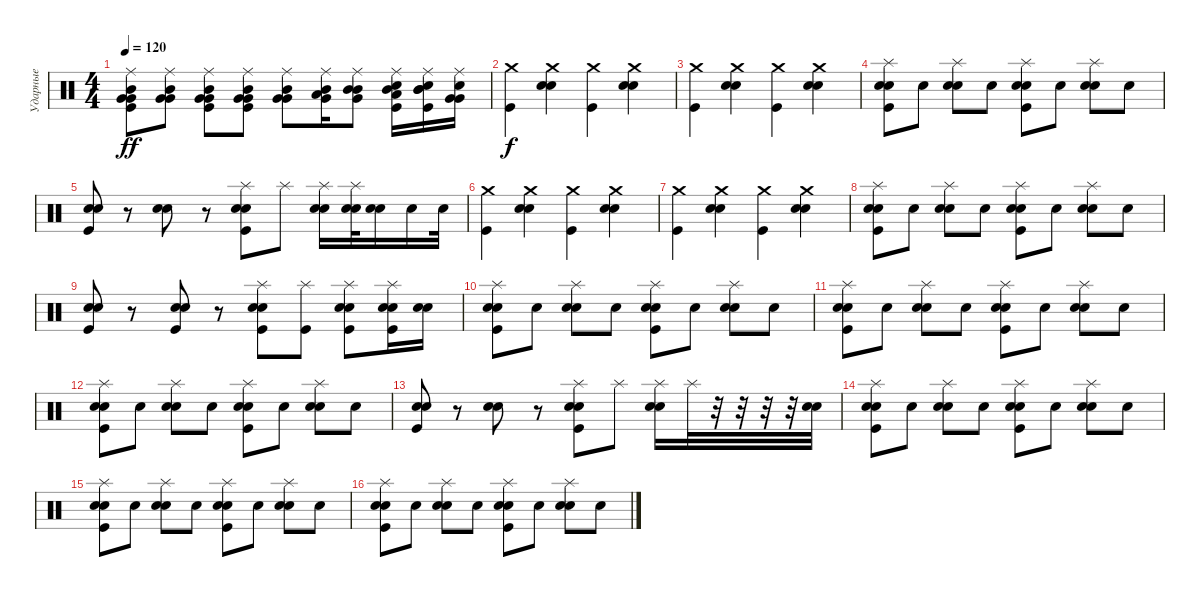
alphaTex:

\track ("Ударные" "Ударные") {instrument percussion}
\staff {score}
\articulation defaults
\ts (4 4)
\tempo 120
\clef neutral
\ks c
("Ride (middle)" "Very Low Tom (hit)" "Very Low Tom (hit)" "Mid Tom (hit)" "Kick (hit)").8{dy ff} ("Ride (middle)" "Very Low Tom (hit)" "Very Low Tom (hit)" "Mid Tom (hit)").8 ("Ride (middle)" "Very Low Tom (hit)" "Very Low Tom (hit)" "Mid Tom (hit)" "Kick (hit)").8 ("Ride (middle)" "Very Low Tom (hit)" "Very Low Tom (hit)" "Mid Tom (hit)" "Kick (hit)").8 ("Ride (middle)" "Very Low Tom (hit)" "Very Low Tom (hit)" "Mid Tom (hit)").8 ("Ride (middle)" "Very Low Tom (hit)" "Low Floor Tom (hit)" "Mid Tom (hit)").16 ("Ride (middle)" "Mid Tom (hit)" "Very Low Tom (hit)" "Mid Tom (hit)").8 ("Ride (middle)" "Electric Snare (hit)" "Mid Tom (hit)" "Low Floor Tom (hit)" "Kick (hit)").16 ("Ride (middle)" "Electric Snare (hit)" "Mid Tom (hit)" "Mid Tom (hit)" "Kick (hit)").16 ("Ride (middle)" "Electric Snare (hit)" "Very Low Tom (hit)" "Very Low Tom (hit)").16 |
("Crash medium (hit)" "Kick (hit)").4{dy f} ("Crash medium (hit)" "Electric Snare (hit)" "Electric Snare (hit)").4 ("Crash medium (hit)" "Kick (hit)").4 ("Crash medium (hit)" "Electric Snare (hit)" "Electric Snare (hit)").4 |
("Crash medium (hit)" "Kick (hit)").4 ("Crash medium (hit)" "Electric Snare (hit)" "Electric Snare (hit)").4 ("Crash medium (hit)" "Kick (hit)").4 ("Crash medium (hit)" "Electric Snare (hit)" "Electric Snare (hit)").4 |
("Splash (hit)" "Electric Snare (hit)" "Electric Snare (hit)" "Kick (hit)").8 "Electric Snare (hit)".8 ("Splash (hit)" "Electric Snare (hit)" "Electric Snare (hit)").8 "Electric Snare (hit)".8 ("Splash (hit)" "Electric Snare (hit)" "Electric Snare (hit)" "Kick (hit)").8 "Electric Snare (hit)".8 ("Splash (hit)" "Electric Snare (hit)" "Electric Snare (hit)").8 "Electric Snare (hit)".8 |
("Electric Snare (hit)" "Electric Snare (hit)" "Kick (hit)").8 r.8 ("Electric Snare (hit)" "Electric Snare (hit)").8 r.8 ("Splash (hit)" "Electric Snare (hit)" "Electric Snare (hit)" "Kick (hit)").8 "Splash (hit)".8 ("Splash (hit)" "Electric Snare (hit)" "Electric Snare (hit)").16 ("Splash (hit)" "Electric Snare (hit)" "Electric Snare (hit)").32 ("Electric Snare (hit)" "Electric Snare (hit)").16 "Electric Snare (hit)".16 "Electric Snare (hit)".32 |
("Crash medium (hit)" "Kick (hit)").4 ("Crash medium (hit)" "Electric Snare (hit)" "Electric Snare (hit)").4 ("Crash medium (hit)" "Kick (hit)").4 ("Crash medium (hit)" "Electric Snare (hit)" "Electric Snare (hit)").4 |
("Crash medium (hit)" "Kick (hit)").4 ("Crash medium (hit)" "Electric Snare (hit)" "Electric Snare (hit)").4 ("Crash medium (hit)" "Kick (hit)").4 ("Crash medium (hit)" "Electric Snare (hit)" "Electric Snare (hit)").4 |
("Splash (hit)" "Electric Snare (hit)" "Electric Snare (hit)" "Kick (hit)").8 "Electric Snare (hit)".8 ("Splash (hit)" "Electric Snare (hit)" "Electric Snare (hit)").8 "Electric Snare (hit)".8 ("Splash (hit)" "Electric Snare (hit)" "Electric Snare (hit)" "Kick (hit)").8 "Electric Snare (hit)".8 ("Splash (hit)" "Electric Snare (hit)" "Electric Snare (hit)").8 "Electric Snare (hit)".8 |
("Electric Snare (hit)" "Electric Snare (hit)" "Kick (hit)").8 r.8 ("Electric Snare (hit)" "Electric Snare (hit)" "Kick (hit)").8 r.8 ("Splash (hit)" "Electric Snare (hit)" "Electric Snare (hit)" "Kick (hit)").8 ("Splash (hit)" "Kick (hit)").8 ("Splash (hit)" "Electric Snare (hit)" "Electric Snare (hit)" "Kick (hit)").8 ("Splash (hit)" "Electric Snare (hit)" "Electric Snare (hit)" "Kick (hit)").16 ("Electric Snare (hit)" "Electric Snare (hit)").16 |
("Splash (hit)" "Electric Snare (hit)" "Electric Snare (hit)" "Kick (hit)").8 "Electric Snare (hit)".8 ("Splash (hit)" "Electric Snare (hit)" "Electric Snare (hit)").8 "Electric Snare (hit)".8 ("Splash (hit)" "Electric Snare (hit)" "Electric Snare (hit)" "Kick (hit)").8 "Electric Snare (hit)".8 ("Splash (hit)" "Electric Snare (hit)" "Electric Snare (hit)").8 "Electric Snare (hit)".8 |
("Splash (hit)" "Electric Snare (hit)" "Electric Snare (hit)" "Kick (hit)").8 "Electric Snare (hit)".8 ("Splash (hit)" "Electric Snare (hit)" "Electric Snare (hit)").8 "Electric Snare (hit)".8 ("Splash (hit)" "Electric Snare (hit)" "Electric Snare (hit)" "Kick (hit)").8 "Electric Snare (hit)".8 ("Splash (hit)" "Electric Snare (hit)" "Electric Snare (hit)").8 "Electric Snare (hit)".8 |
("Splash (hit)" "Electric Snare (hit)" "Electric Snare (hit)" "Kick (hit)").8 "Electric Snare (hit)".8 ("Splash (hit)" "Electric Snare (hit)" "Electric Snare (hit)").8 "Electric Snare (hit)".8 ("Splash (hit)" "Electric Snare (hit)" "Electric Snare (hit)" "Kick (hit)").8 "Electric Snare (hit)".8 ("Splash (hit)" "Electric Snare (hit)" "Electric Snare (hit)").8 "Electric Snare (hit)".8 |
("Electric Snare (hit)" "Electric Snare (hit)" "Kick (hit)").8 r.8 ("Electric Snare (hit)" "Electric Snare (hit)").8 r.8 ("Splash (hit)" "Electric Snare (hit)" "Electric Snare (hit)" "Kick (hit)").8 "Splash (hit)".8 ("Splash (hit)" "Electric Snare (hit)" "Electric Snare (hit)").16 "Splash (hit)".32 r.32 r.32 r.32 r.32 ("Electric Snare (hit)" "Electric Snare (hit)").32 |
("Splash (hit)" "Electric Snare (hit)" "Electric Snare (hit)" "Kick (hit)").8 "Electric Snare (hit)".8 ("Splash (hit)" "Electric Snare (hit)" "Electric Snare (hit)").8 "Electric Snare (hit)".8 ("Splash (hit)" "Electric Snare (hit)" "Electric Snare (hit)" "Kick (hit)").8 "Electric Snare (hit)".8 ("Splash (hit)" "Electric Snare (hit)" "Electric Snare (hit)").8 "Electric Snare (hit)".8 |
("Splash (hit)" "Electric Snare (hit)" "Electric Snare (hit)" "Kick (hit)").8 "Electric Snare (hit)".8 ("Splash (hit)" "Electric Snare (hit)" "Electric Snare (hit)").8 "Electric Snare (hit)".8 ("Splash (hit)" "Electric Snare (hit)" "Electric Snare (hit)" "Kick (hit)").8 "Electric Snare (hit)".8 ("Splash (hit)" "Electric Snare (hit)" "Electric Snare (hit)").8 "Electric Snare (hit)".8 |
("Splash (hit)" "Electric Snare (hit)" "Electric Snare (hit)" "Kick (hit)").8 "Electric Snare (hit)".8 ("Splash (hit)" "Electric Snare (hit)" "Electric Snare (hit)").8 "Electric Snare (hit)".8 ("Splash (hit)" "Electric Snare (hit)" "Electric Snare (hit)" "Kick (hit)").8 "Electric Snare (hit)".8 ("Splash (hit)" "Electric Snare (hit)" "Electric Snare (hit)").8 "Electric Snare (hit)".8
